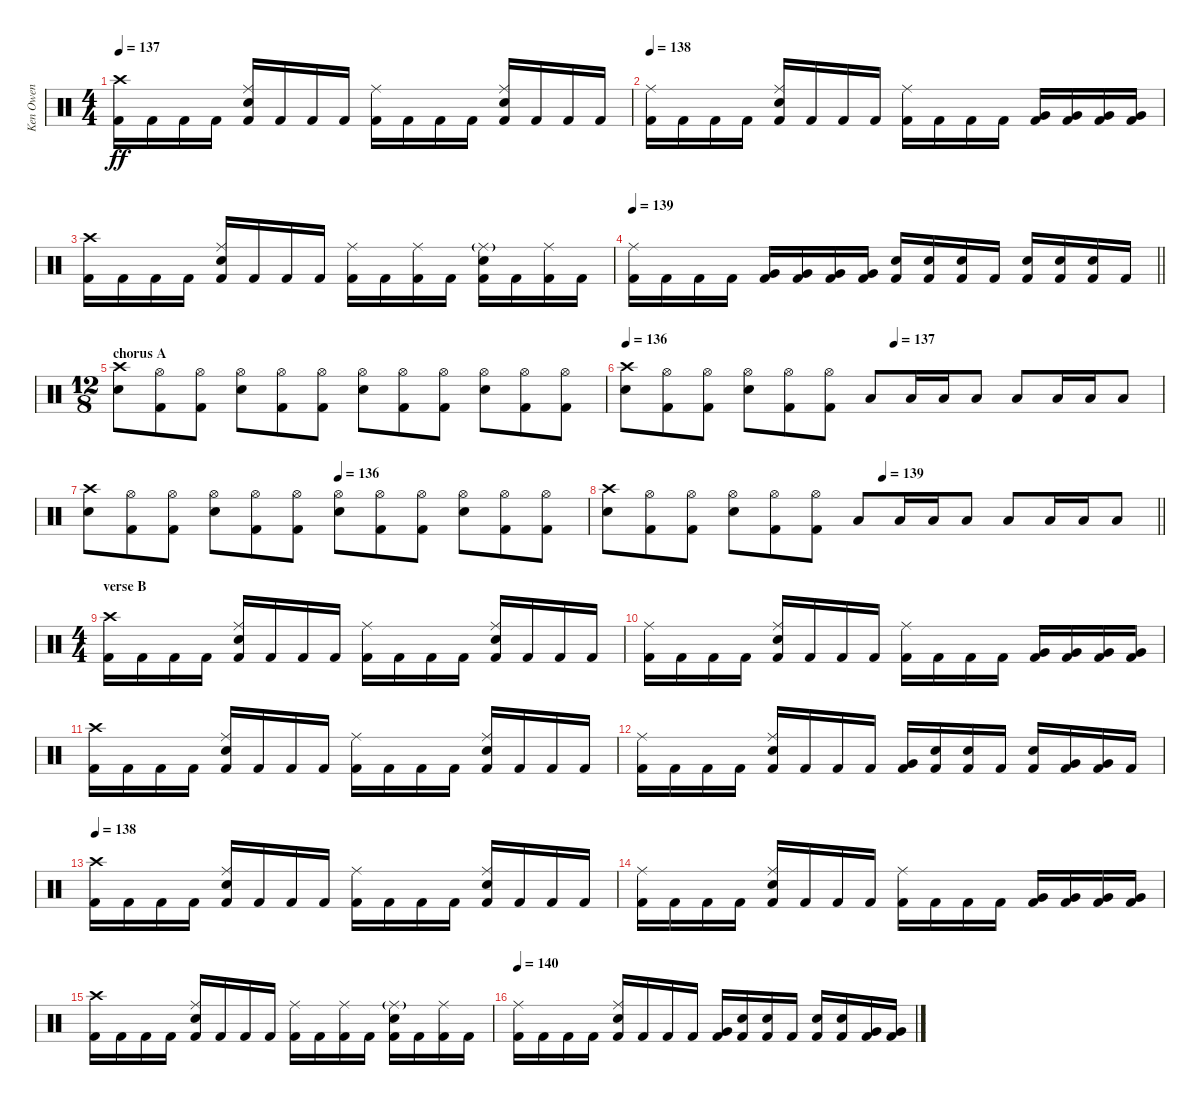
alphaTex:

\track ("Ken Owen" "Ken Owen") {instrument percussion}
\staff {score}
\articulation defaults
\ts (4 4)
\tempo 137
\clef neutral
\ks c
("Crash high (hit)" "Kick (hit) 2").16{dy ff} "Kick (hit) 2".16 "Kick (hit) 2".16 "Kick (hit) 2".16 ("Ride (middle)" "Snare (hit) 2" "Kick (hit) 2").16 "Kick (hit) 2".16 "Kick (hit) 2".16 "Kick (hit) 2".16 ("Ride (middle)" "Kick (hit) 2").16 "Kick (hit) 2".16 "Kick (hit) 2".16 "Kick (hit) 2".16 ("Ride (middle)" "Snare (hit) 2" "Kick (hit) 2").16 "Kick (hit) 2".16 "Kick (hit) 2".16 "Kick (hit) 2".16 |
\tempo 138
("Ride (middle)" "Kick (hit) 2").16 "Kick (hit) 2".16 "Kick (hit) 2".16 "Kick (hit) 2".16 ("Ride (middle)" "Snare (hit) 2" "Kick (hit) 2").16 "Kick (hit) 2".16 "Kick (hit) 2".16 "Kick (hit) 2".16 ("Ride (middle)" "Kick (hit) 2").16 "Kick (hit) 2".16 "Kick (hit) 2".16 "Kick (hit) 2".16 ("Very Low Tom (hit)" "Kick (hit) 2").16 ("Very Low Tom (hit)" "Kick (hit) 2").16 ("Very Low Tom (hit)" "Kick (hit) 2").16 ("Very Low Tom (hit)" "Kick (hit) 2").16 |
("Crash high (hit)" "Kick (hit) 2").16 "Kick (hit) 2".16 "Kick (hit) 2".16 "Kick (hit) 2".16 ("Ride (middle)" "Snare (hit) 2" "Kick (hit) 2").16 "Kick (hit) 2".16 "Kick (hit) 2".16 "Kick (hit) 2".16 ("Ride (middle)" "Kick (hit) 2").16 "Kick (hit) 2".16 ("Ride (middle)" "Kick (hit) 2").16 "Kick (hit) 2".16 ("Ride (middle)"{g} "Snare (hit) 2" "Kick (hit) 2").16 "Kick (hit) 2".16 ("Ride (middle)" "Kick (hit) 2").16 "Kick (hit) 2".16 |
\tempo 139
\barLineRight lightlight
("Ride (middle)" "Kick (hit) 2").16 "Kick (hit) 2".16 "Kick (hit) 2".16 "Kick (hit) 2".16 ("Very Low Tom (hit)" "Kick (hit) 2").16 ("Very Low Tom (hit)" "Kick (hit) 2").16 ("Very Low Tom (hit)" "Kick (hit) 2").16 ("Very Low Tom (hit)" "Kick (hit) 2").16 ("Snare (hit) 2" "Kick (hit) 2").16 ("Snare (hit) 2" "Kick (hit) 2").16 ("Snare (hit) 2" "Kick (hit) 2").16 "Kick (hit) 2".16 ("Snare (hit) 2" "Kick (hit) 2").16 ("Snare (hit) 2" "Kick (hit) 2").16 ("Snare (hit) 2" "Kick (hit) 2").16 "Kick (hit) 2".16 |
\ts (12 8)
\section ("" "chorus A")
("Snare (hit) 2" "Crash high (hit)").8 ("Hi-Hat (open)" "Kick (hit) 2").8 ("Hi-Hat (open)" "Kick (hit) 2").8 ("Snare (hit) 2" "Hi-Hat (open)").8 ("Hi-Hat (open)" "Kick (hit) 2").8 ("Hi-Hat (open)" "Kick (hit) 2").8 ("Snare (hit) 2" "Hi-Hat (open)").8 ("Hi-Hat (open)" "Kick (hit) 2").8 ("Hi-Hat (open)" "Kick (hit) 2").8 ("Snare (hit) 2" "Hi-Hat (open)").8 ("Hi-Hat (open)" "Kick (hit) 2").8 ("Hi-Hat (open)" "Kick (hit) 2").8 |
\tempo 136
\tempo (137 0.5)
("Snare (hit) 2" "Crash high (hit)").8 ("Hi-Hat (open)" "Kick (hit) 2").8 ("Hi-Hat (open)" "Kick (hit) 2").8 ("Snare (hit) 2" "Hi-Hat (open)").8 ("Hi-Hat (open)" "Kick (hit) 2").8 ("Hi-Hat (open)" "Kick (hit) 2").8 "Low Tom (hit)".8 "Low Tom (hit)".16 "Low Tom (hit)".16 "Low Tom (hit)".8 "Low Floor Tom (hit)".8 "Low Floor Tom (hit)".16 "Low Floor Tom (hit)".16 "Low Floor Tom (hit)".8 |
\tempo (136 0.5)
("Snare (hit) 2" "Crash high (hit)").8 ("Hi-Hat (open)" "Kick (hit) 2").8 ("Hi-Hat (open)" "Kick (hit) 2").8 ("Snare (hit) 2" "Hi-Hat (open)").8 ("Hi-Hat (open)" "Kick (hit) 2").8 ("Hi-Hat (open)" "Kick (hit) 2").8 ("Snare (hit) 2" "Hi-Hat (open)").8 ("Hi-Hat (open)" "Kick (hit) 2").8 ("Hi-Hat (open)" "Kick (hit) 2").8 ("Snare (hit) 2" "Hi-Hat (open)").8 ("Hi-Hat (open)" "Kick (hit) 2").8 ("Hi-Hat (open)" "Kick (hit) 2").8 |
\tempo (139 0.5)
\barLineRight lightlight
("Snare (hit) 2" "Crash high (hit)").8 ("Hi-Hat (open)" "Kick (hit) 2").8 ("Hi-Hat (open)" "Kick (hit) 2").8 ("Snare (hit) 2" "Hi-Hat (open)").8 ("Hi-Hat (open)" "Kick (hit) 2").8 ("Hi-Hat (open)" "Kick (hit) 2").8 "Low Tom (hit)".8 "Low Tom (hit)".16 "Low Tom (hit)".16 "Low Tom (hit)".8 "Low Floor Tom (hit)".8 "Low Floor Tom (hit)".16 "Low Floor Tom (hit)".16 "Low Floor Tom (hit)".8 |
\ts (4 4)
\section ("" "verse B")
("Crash high (hit)" "Kick (hit) 2").16 "Kick (hit) 2".16 "Kick (hit) 2".16 "Kick (hit) 2".16 ("Ride (middle)" "Snare (hit) 2" "Kick (hit) 2").16 "Kick (hit) 2".16 "Kick (hit) 2".16 "Kick (hit) 2".16 ("Ride (middle)" "Kick (hit) 2").16 "Kick (hit) 2".16 "Kick (hit) 2".16 "Kick (hit) 2".16 ("Ride (middle)" "Snare (hit) 2" "Kick (hit) 2").16 "Kick (hit) 2".16 "Kick (hit) 2".16 "Kick (hit) 2".16 |
("Ride (middle)" "Kick (hit) 2").16 "Kick (hit) 2".16 "Kick (hit) 2".16 "Kick (hit) 2".16 ("Ride (middle)" "Snare (hit) 2" "Kick (hit) 2").16 "Kick (hit) 2".16 "Kick (hit) 2".16 "Kick (hit) 2".16 ("Ride (middle)" "Kick (hit) 2").16 "Kick (hit) 2".16 "Kick (hit) 2".16 "Kick (hit) 2".16 ("Very Low Tom (hit)" "Kick (hit) 2").16 ("Very Low Tom (hit)" "Kick (hit) 2").16 ("Very Low Tom (hit)" "Kick (hit) 2").16 ("Very Low Tom (hit)" "Kick (hit) 2").16 |
("Crash high (hit)" "Kick (hit) 2").16 "Kick (hit) 2".16 "Kick (hit) 2".16 "Kick (hit) 2".16 ("Ride (middle)" "Snare (hit) 2" "Kick (hit) 2").16 "Kick (hit) 2".16 "Kick (hit) 2".16 "Kick (hit) 2".16 ("Ride (middle)" "Kick (hit) 2").16 "Kick (hit) 2".16 "Kick (hit) 2".16 "Kick (hit) 2".16 ("Ride (middle)" "Snare (hit) 2" "Kick (hit) 2").16 "Kick (hit) 2".16 "Kick (hit) 2".16 "Kick (hit) 2".16 |
("Ride (middle)" "Kick (hit) 2").16 "Kick (hit) 2".16 "Kick (hit) 2".16 "Kick (hit) 2".16 ("Ride (middle)" "Snare (hit) 2" "Kick (hit) 2").16 "Kick (hit) 2".16 "Kick (hit) 2".16 "Kick (hit) 2".16 ("Very Low Tom (hit)" "Kick (hit) 2").16 ("Snare (hit) 2" "Kick (hit) 2").16 ("Snare (hit) 2" "Kick (hit) 2").16 "Kick (hit) 2".16 ("Snare (hit) 2" "Kick (hit) 2").16 ("Very Low Tom (hit)" "Kick (hit) 2").16 ("Very Low Tom (hit)" "Kick (hit) 2").16 "Kick (hit) 2".16 |
\tempo 138
("Crash high (hit)" "Kick (hit) 2").16 "Kick (hit) 2".16 "Kick (hit) 2".16 "Kick (hit) 2".16 ("Ride (middle)" "Snare (hit) 2" "Kick (hit) 2").16 "Kick (hit) 2".16 "Kick (hit) 2".16 "Kick (hit) 2".16 ("Ride (middle)" "Kick (hit) 2").16 "Kick (hit) 2".16 "Kick (hit) 2".16 "Kick (hit) 2".16 ("Ride (middle)" "Snare (hit) 2" "Kick (hit) 2").16 "Kick (hit) 2".16 "Kick (hit) 2".16 "Kick (hit) 2".16 |
("Ride (middle)" "Kick (hit) 2").16 "Kick (hit) 2".16 "Kick (hit) 2".16 "Kick (hit) 2".16 ("Ride (middle)" "Snare (hit) 2" "Kick (hit) 2").16 "Kick (hit) 2".16 "Kick (hit) 2".16 "Kick (hit) 2".16 ("Ride (middle)" "Kick (hit) 2").16 "Kick (hit) 2".16 "Kick (hit) 2".16 "Kick (hit) 2".16 ("Very Low Tom (hit)" "Kick (hit) 2").16 ("Very Low Tom (hit)" "Kick (hit) 2").16 ("Very Low Tom (hit)" "Kick (hit) 2").16 ("Very Low Tom (hit)" "Kick (hit) 2").16 |
("Crash high (hit)" "Kick (hit) 2").16 "Kick (hit) 2".16 "Kick (hit) 2".16 "Kick (hit) 2".16 ("Ride (middle)" "Snare (hit) 2" "Kick (hit) 2").16 "Kick (hit) 2".16 "Kick (hit) 2".16 "Kick (hit) 2".16 ("Ride (middle)" "Kick (hit) 2").16 "Kick (hit) 2".16 ("Ride (middle)" "Kick (hit) 2").16 "Kick (hit) 2".16 ("Ride (middle)"{g} "Snare (hit) 2" "Kick (hit) 2").16 "Kick (hit) 2".16 ("Ride (middle)" "Kick (hit) 2").16 "Kick (hit) 2".16 |
\tempo 140
("Ride (middle)" "Kick (hit) 2").16 "Kick (hit) 2".16 "Kick (hit) 2".16 "Kick (hit) 2".16 ("Ride (middle)" "Snare (hit) 2" "Kick (hit) 2").16 "Kick (hit) 2".16 "Kick (hit) 2".16 "Kick (hit) 2".16 ("Very Low Tom (hit)" "Kick (hit) 2").16 ("Snare (hit) 2" "Kick (hit) 2").16 ("Snare (hit) 2" "Kick (hit) 2").16 "Kick (hit) 2".16 ("Snare (hit) 2" "Kick (hit) 2").16 ("Snare (hit) 2" "Kick (hit) 2").16 ("Very Low Tom (hit)" "Kick (hit) 2").16 ("Very Low Tom (hit)" "Kick (hit) 2").16
